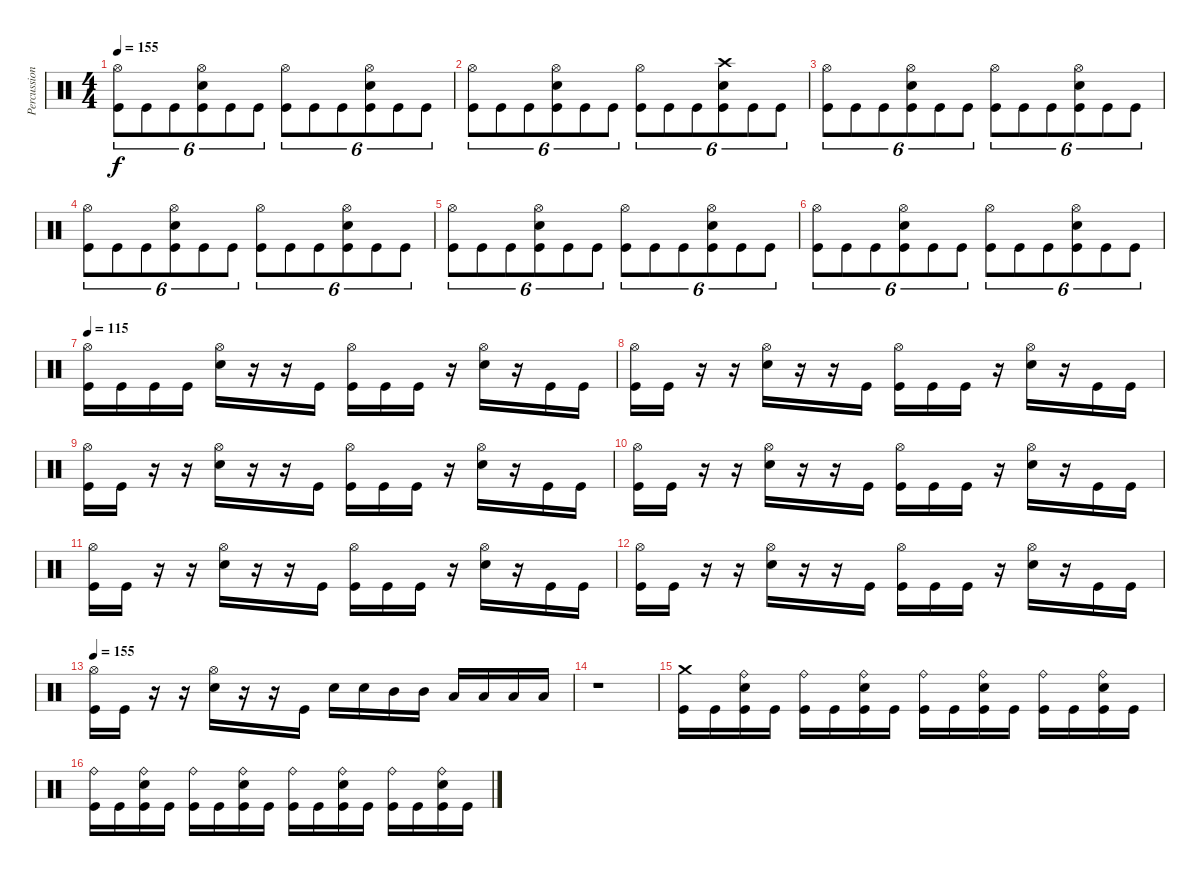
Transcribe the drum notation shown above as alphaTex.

\track ("Percussion" "Percussion") {instrument percussion}
\staff {score}
\articulation defaults
\ts (4 4)
\tempo 155
\clef neutral
\ks c
("Hi-Hat (open)" "Kick (hit)").8{tu (6 4) dy f} "Kick (hit)".8{tu (6 4)} "Kick (hit)".8{tu (6 4)} ("Hi-Hat (open)" "Snare (hit) 2" "Kick (hit)").8{tu (6 4)} "Kick (hit)".8{tu (6 4)} "Kick (hit)".8{tu (6 4)} ("Hi-Hat (open)" "Kick (hit)").8{tu (6 4)} "Kick (hit)".8{tu (6 4)} "Kick (hit)".8{tu (6 4)} ("Hi-Hat (open)" "Snare (hit) 2" "Kick (hit)").8{tu (6 4)} "Kick (hit)".8{tu (6 4)} "Kick (hit)".8{tu (6 4)} |
("Hi-Hat (open)" "Kick (hit)").8{tu (6 4)} "Kick (hit)".8{tu (6 4)} "Kick (hit)".8{tu (6 4)} ("Hi-Hat (open)" "Snare (hit) 2" "Kick (hit)").8{tu (6 4)} "Kick (hit)".8{tu (6 4)} "Kick (hit)".8{tu (6 4)} ("Hi-Hat (open)" "Kick (hit)").8{tu (6 4)} "Kick (hit)".8{tu (6 4)} "Kick (hit)".8{tu (6 4)} ("Crash high (hit)" "Snare (hit) 2" "Kick (hit)").8{tu (6 4)} "Kick (hit)".8{tu (6 4)} "Kick (hit)".8{tu (6 4)} |
("Hi-Hat (open)" "Kick (hit)").8{tu (6 4)} "Kick (hit)".8{tu (6 4)} "Kick (hit)".8{tu (6 4)} ("Hi-Hat (open)" "Snare (hit) 2" "Kick (hit)").8{tu (6 4)} "Kick (hit)".8{tu (6 4)} "Kick (hit)".8{tu (6 4)} ("Hi-Hat (open)" "Kick (hit)").8{tu (6 4)} "Kick (hit)".8{tu (6 4)} "Kick (hit)".8{tu (6 4)} ("Hi-Hat (open)" "Snare (hit) 2" "Kick (hit)").8{tu (6 4)} "Kick (hit)".8{tu (6 4)} "Kick (hit)".8{tu (6 4)} |
("Hi-Hat (open)" "Kick (hit)").8{tu (6 4)} "Kick (hit)".8{tu (6 4)} "Kick (hit)".8{tu (6 4)} ("Hi-Hat (open)" "Snare (hit) 2" "Kick (hit)").8{tu (6 4)} "Kick (hit)".8{tu (6 4)} "Kick (hit)".8{tu (6 4)} ("Hi-Hat (open)" "Kick (hit)").8{tu (6 4)} "Kick (hit)".8{tu (6 4)} "Kick (hit)".8{tu (6 4)} ("Hi-Hat (open)" "Snare (hit) 2" "Kick (hit)").8{tu (6 4)} "Kick (hit)".8{tu (6 4)} "Kick (hit)".8{tu (6 4)} |
("Hi-Hat (open)" "Kick (hit)").8{tu (6 4)} "Kick (hit)".8{tu (6 4)} "Kick (hit)".8{tu (6 4)} ("Hi-Hat (open)" "Snare (hit) 2" "Kick (hit)").8{tu (6 4)} "Kick (hit)".8{tu (6 4)} "Kick (hit)".8{tu (6 4)} ("Hi-Hat (open)" "Kick (hit)").8{tu (6 4)} "Kick (hit)".8{tu (6 4)} "Kick (hit)".8{tu (6 4)} ("Hi-Hat (open)" "Snare (hit) 2" "Kick (hit)").8{tu (6 4)} "Kick (hit)".8{tu (6 4)} "Kick (hit)".8{tu (6 4)} |
("Hi-Hat (open)" "Kick (hit)").8{tu (6 4)} "Kick (hit)".8{tu (6 4)} "Kick (hit)".8{tu (6 4)} ("Hi-Hat (open)" "Snare (hit) 2" "Kick (hit)").8{tu (6 4)} "Kick (hit)".8{tu (6 4)} "Kick (hit)".8{tu (6 4)} ("Hi-Hat (open)" "Kick (hit)").8{tu (6 4)} "Kick (hit)".8{tu (6 4)} "Kick (hit)".8{tu (6 4)} ("Hi-Hat (open)" "Snare (hit) 2" "Kick (hit)").8{tu (6 4)} "Kick (hit)".8{tu (6 4)} "Kick (hit)".8{tu (6 4)} |
\tempo 115
("Hi-Hat (open)" "Kick (hit)").16 "Kick (hit)".16 "Kick (hit)".16 "Kick (hit)".16 ("Hi-Hat (open)" "Snare (hit) 2").16 r.16 r.16 "Kick (hit)".16 ("Hi-Hat (open)" "Kick (hit)").16 "Kick (hit)".16 "Kick (hit)".16 r.16 ("Hi-Hat (open)" "Snare (hit) 2").16 r.16 "Kick (hit)".16 "Kick (hit)".16 |
("Hi-Hat (open)" "Kick (hit)").16 "Kick (hit)".16 r.16 r.16 ("Hi-Hat (open)" "Snare (hit) 2").16 r.16 r.16 "Kick (hit)".16 ("Hi-Hat (open)" "Kick (hit)").16 "Kick (hit)".16 "Kick (hit)".16 r.16 ("Hi-Hat (open)" "Snare (hit) 2").16 r.16 "Kick (hit)".16 "Kick (hit)".16 |
("Hi-Hat (open)" "Kick (hit)").16 "Kick (hit)".16 r.16 r.16 ("Hi-Hat (open)" "Snare (hit) 2").16 r.16 r.16 "Kick (hit)".16 ("Hi-Hat (open)" "Kick (hit)").16 "Kick (hit)".16 "Kick (hit)".16 r.16 ("Hi-Hat (open)" "Snare (hit) 2").16 r.16 "Kick (hit)".16 "Kick (hit)".16 |
("Hi-Hat (open)" "Kick (hit)").16 "Kick (hit)".16 r.16 r.16 ("Hi-Hat (open)" "Snare (hit) 2").16 r.16 r.16 "Kick (hit)".16 ("Hi-Hat (open)" "Kick (hit)").16 "Kick (hit)".16 "Kick (hit)".16 r.16 ("Hi-Hat (open)" "Snare (hit) 2").16 r.16 "Kick (hit)".16 "Kick (hit)".16 |
("Hi-Hat (open)" "Kick (hit)").16 "Kick (hit)".16 r.16 r.16 ("Hi-Hat (open)" "Snare (hit) 2").16 r.16 r.16 "Kick (hit)".16 ("Hi-Hat (open)" "Kick (hit)").16 "Kick (hit)".16 "Kick (hit)".16 r.16 ("Hi-Hat (open)" "Snare (hit) 2").16 r.16 "Kick (hit)".16 "Kick (hit)".16 |
("Hi-Hat (open)" "Kick (hit)").16 "Kick (hit)".16 r.16 r.16 ("Hi-Hat (open)" "Snare (hit) 2").16 r.16 r.16 "Kick (hit)".16 ("Hi-Hat (open)" "Kick (hit)").16 "Kick (hit)".16 "Kick (hit)".16 r.16 ("Hi-Hat (open)" "Snare (hit) 2").16 r.16 "Kick (hit)".16 "Kick (hit)".16 |
\tempo 155
("Hi-Hat (open)" "Kick (hit)").16 "Kick (hit)".16 r.16 r.16 ("Hi-Hat (open)" "Snare (hit) 2").16 r.16 r.16 "Kick (hit)".16 "Snare (hit) 2".16 "Snare (hit) 2".16 "Mid Tom (hit)".16 "Mid Tom (hit)".16 "Low Tom (hit)".16 "Low Tom (hit)".16 "Low Floor Tom (hit)".16 "Low Floor Tom (hit)".16 |
r.1 |
("Crash medium (hit)" "Kick (hit)").16 "Kick (hit)".16 ("Ride (bell)" "Snare (hit) 2" "Kick (hit)").16 "Kick (hit)".16 ("Ride (bell)" "Kick (hit)").16 "Kick (hit)".16 ("Ride (bell)" "Snare (hit) 2" "Kick (hit)").16 "Kick (hit)".16 ("Ride (bell)" "Kick (hit)").16 "Kick (hit)".16 ("Ride (bell)" "Snare (hit) 2" "Kick (hit)").16 "Kick (hit)".16 ("Ride (bell)" "Kick (hit)").16 "Kick (hit)".16 ("Ride (bell)" "Snare (hit) 2" "Kick (hit)").16 "Kick (hit)".16 |
("Ride (bell)" "Kick (hit)").16 "Kick (hit)".16 ("Ride (bell)" "Snare (hit) 2" "Kick (hit)").16 "Kick (hit)".16 ("Ride (bell)" "Kick (hit)").16 "Kick (hit)".16 ("Ride (bell)" "Snare (hit) 2" "Kick (hit)").16 "Kick (hit)".16 ("Ride (bell)" "Kick (hit)").16 "Kick (hit)".16 ("Ride (bell)" "Snare (hit) 2" "Kick (hit)").16 "Kick (hit)".16 ("Ride (bell)" "Kick (hit)").16 "Kick (hit)".16 ("Ride (bell)" "Snare (hit) 2" "Kick (hit)").16 "Kick (hit)".16
